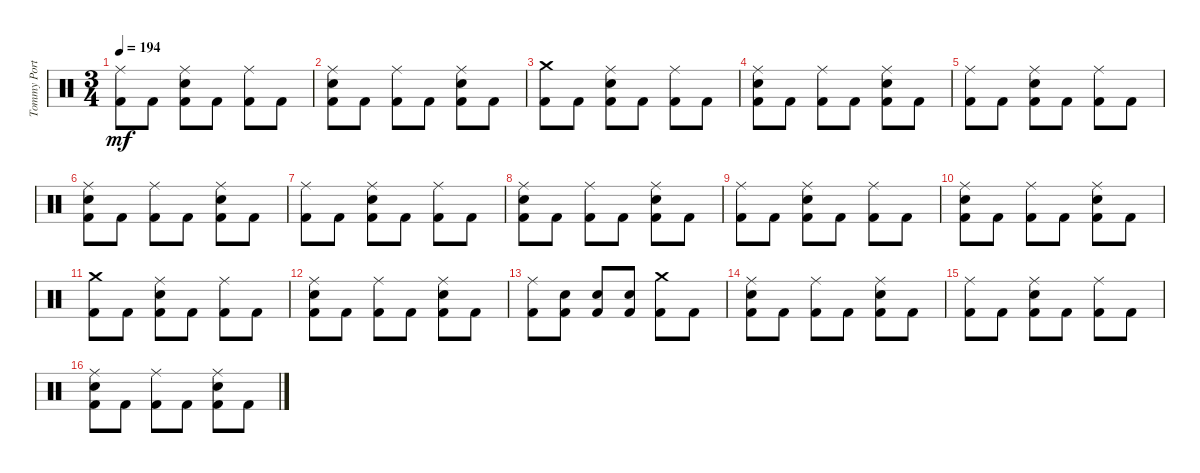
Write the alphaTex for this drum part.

\track ("Tommy Portino" "Tommy Port") {instrument percussion}
\staff {score}
\articulation defaults
\ts (3 4)
\tempo 194
\clef neutral
\ks c
("Ride (middle)" "Kick (hit) 2").8{dy mf} "Kick (hit) 2".8 ("Ride (middle)" "Snare (hit) 2" "Kick (hit) 2").8 "Kick (hit) 2".8 ("Ride (middle)" "Kick (hit) 2").8 "Kick (hit) 2".8 |
("Ride (middle)" "Snare (hit) 2" "Kick (hit) 2").8 "Kick (hit) 2".8 ("Ride (middle)" "Kick (hit) 2").8 "Kick (hit) 2".8 ("Ride (middle)" "Snare (hit) 2" "Kick (hit) 2").8 "Kick (hit) 2".8 |
("Crash medium (hit)" "Kick (hit) 2").8 "Kick (hit) 2".8 ("Ride (middle)" "Snare (hit) 2" "Kick (hit) 2").8 "Kick (hit) 2".8 ("Ride (middle)" "Kick (hit) 2").8 "Kick (hit) 2".8 |
("Ride (middle)" "Snare (hit) 2" "Kick (hit) 2").8 "Kick (hit) 2".8 ("Ride (middle)" "Kick (hit) 2").8 "Kick (hit) 2".8 ("Ride (middle)" "Snare (hit) 2" "Kick (hit) 2").8 "Kick (hit) 2".8 |
("Ride (middle)" "Kick (hit) 2").8 "Kick (hit) 2".8 ("Ride (middle)" "Snare (hit) 2" "Kick (hit) 2").8 "Kick (hit) 2".8 ("Ride (middle)" "Kick (hit) 2").8 "Kick (hit) 2".8 |
("Ride (middle)" "Snare (hit) 2" "Kick (hit) 2").8 "Kick (hit) 2".8 ("Ride (middle)" "Kick (hit) 2").8 "Kick (hit) 2".8 ("Ride (middle)" "Snare (hit) 2" "Kick (hit) 2").8 "Kick (hit) 2".8 |
("Ride (middle)" "Kick (hit) 2").8 "Kick (hit) 2".8 ("Ride (middle)" "Snare (hit) 2" "Kick (hit) 2").8 "Kick (hit) 2".8 ("Ride (middle)" "Kick (hit) 2").8 "Kick (hit) 2".8 |
("Ride (middle)" "Snare (hit) 2" "Kick (hit) 2").8 "Kick (hit) 2".8 ("Ride (middle)" "Kick (hit) 2").8 "Kick (hit) 2".8 ("Ride (middle)" "Snare (hit) 2" "Kick (hit) 2").8 "Kick (hit) 2".8 |
("Ride (middle)" "Kick (hit) 2").8 "Kick (hit) 2".8 ("Ride (middle)" "Snare (hit) 2" "Kick (hit) 2").8 "Kick (hit) 2".8 ("Ride (middle)" "Kick (hit) 2").8 "Kick (hit) 2".8 |
("Ride (middle)" "Snare (hit) 2" "Kick (hit) 2").8 "Kick (hit) 2".8 ("Ride (middle)" "Kick (hit) 2").8 "Kick (hit) 2".8 ("Ride (middle)" "Snare (hit) 2" "Kick (hit) 2").8 "Kick (hit) 2".8 |
("Crash medium (hit)" "Kick (hit) 2").8 "Kick (hit) 2".8 ("Ride (middle)" "Snare (hit) 2" "Kick (hit) 2").8 "Kick (hit) 2".8 ("Ride (middle)" "Kick (hit) 2").8 "Kick (hit) 2".8 |
("Ride (middle)" "Snare (hit) 2" "Kick (hit) 2").8 "Kick (hit) 2".8 ("Ride (middle)" "Kick (hit) 2").8 "Kick (hit) 2".8 ("Ride (middle)" "Snare (hit) 2" "Kick (hit) 2").8 "Kick (hit) 2".8 |
("Ride (middle)" "Kick (hit) 2").8 ("Snare (hit) 2" "Kick (hit) 2").8 ("Snare (hit) 2" "Kick (hit) 2").8 ("Snare (hit) 2" "Kick (hit) 2").8 ("Crash medium (hit)" "Kick (hit) 2").8 "Kick (hit) 2".8 |
("Snare (hit) 2" "Ride (middle)" "Kick (hit) 2").8 "Kick (hit) 2".8 ("Ride (middle)" "Kick (hit) 2").8 "Kick (hit) 2".8 ("Ride (middle)" "Snare (hit) 2" "Kick (hit) 2").8 "Kick (hit) 2".8 |
("Ride (middle)" "Kick (hit) 2").8 "Kick (hit) 2".8 ("Ride (middle)" "Snare (hit) 2" "Kick (hit) 2").8 "Kick (hit) 2".8 ("Ride (middle)" "Kick (hit) 2").8 "Kick (hit) 2".8 |
("Ride (middle)" "Snare (hit) 2" "Kick (hit) 2").8 "Kick (hit) 2".8 ("Ride (middle)" "Kick (hit) 2").8 "Kick (hit) 2".8 ("Ride (middle)" "Snare (hit) 2" "Kick (hit) 2").8 "Kick (hit) 2".8
